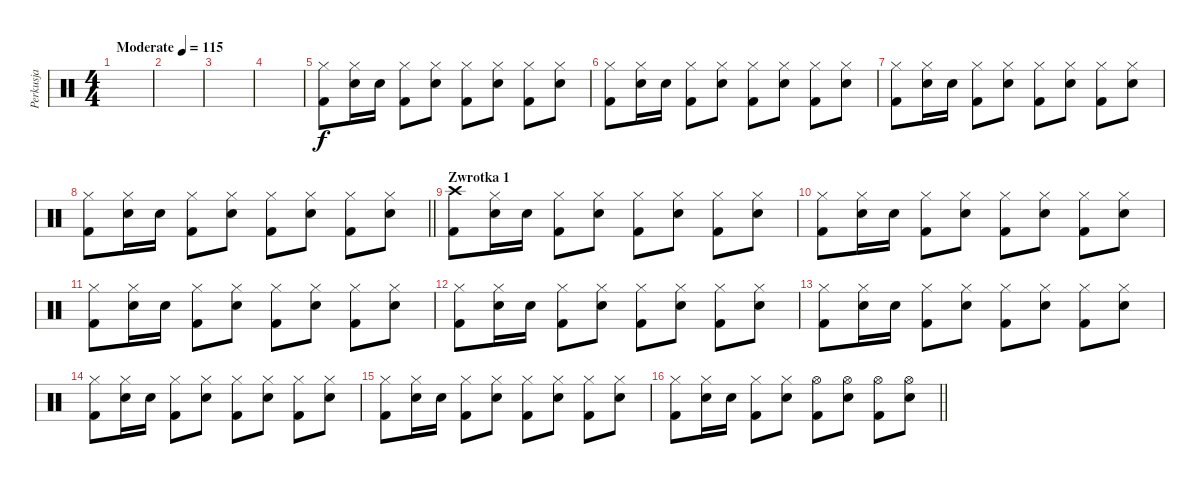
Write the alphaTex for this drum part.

\track ("Perkusja" "Perkusja") {instrument percussion}
\staff {score}
\articulation defaults
\ts (4 4)
\tempo (115 "Moderate")
\clef neutral
\ks c
|
|
|
|
("Hi-Hat (closed)" "Kick (hit) 2").8 ("Hi-Hat (closed)" "Snare (hit) 2").16 "Snare (hit) 2".16 ("Hi-Hat (closed)" "Kick (hit) 2").8 ("Hi-Hat (closed)" "Snare (hit) 2").8 ("Hi-Hat (closed)" "Kick (hit) 2").8 ("Hi-Hat (closed)" "Snare (hit) 2").8 ("Hi-Hat (closed)" "Kick (hit) 2").8 ("Hi-Hat (closed)" "Snare (hit) 2").8 |
("Hi-Hat (closed)" "Kick (hit) 2").8 ("Hi-Hat (closed)" "Snare (hit) 2").16 "Snare (hit) 2".16 ("Hi-Hat (closed)" "Kick (hit) 2").8 ("Hi-Hat (closed)" "Snare (hit) 2").8 ("Hi-Hat (closed)" "Kick (hit) 2").8 ("Hi-Hat (closed)" "Snare (hit) 2").8 ("Hi-Hat (closed)" "Kick (hit) 2").8 ("Hi-Hat (closed)" "Snare (hit) 2").8 |
("Hi-Hat (closed)" "Kick (hit) 2").8 ("Hi-Hat (closed)" "Snare (hit) 2").16 "Snare (hit) 2".16 ("Hi-Hat (closed)" "Kick (hit) 2").8 ("Hi-Hat (closed)" "Snare (hit) 2").8 ("Hi-Hat (closed)" "Kick (hit) 2").8 ("Hi-Hat (closed)" "Snare (hit) 2").8 ("Hi-Hat (closed)" "Kick (hit) 2").8 ("Hi-Hat (closed)" "Snare (hit) 2").8 |
\barLineRight lightlight
("Hi-Hat (closed)" "Kick (hit) 2").8 ("Hi-Hat (closed)" "Snare (hit) 2").16 "Snare (hit) 2".16 ("Hi-Hat (closed)" "Kick (hit) 2").8 ("Hi-Hat (closed)" "Snare (hit) 2").8 ("Hi-Hat (closed)" "Kick (hit) 2").8 ("Hi-Hat (closed)" "Snare (hit) 2").8 ("Hi-Hat (closed)" "Kick (hit) 2").8 ("Hi-Hat (closed)" "Snare (hit) 2").8 |
\section ("" "Zwrotka 1")
("Crash high (hit)" "Kick (hit) 2").8 ("Hi-Hat (closed)" "Snare (hit) 2").16 "Snare (hit) 2".16 ("Hi-Hat (closed)" "Kick (hit) 2").8 ("Hi-Hat (closed)" "Snare (hit) 2").8 ("Hi-Hat (closed)" "Kick (hit) 2").8 ("Hi-Hat (closed)" "Snare (hit) 2").8 ("Hi-Hat (closed)" "Kick (hit) 2").8 ("Hi-Hat (closed)" "Snare (hit) 2").8 |
("Hi-Hat (closed)" "Kick (hit) 2").8 ("Hi-Hat (closed)" "Snare (hit) 2").16 "Snare (hit) 2".16 ("Hi-Hat (closed)" "Kick (hit) 2").8 ("Hi-Hat (closed)" "Snare (hit) 2").8 ("Hi-Hat (closed)" "Kick (hit) 2").8 ("Hi-Hat (closed)" "Snare (hit) 2").8 ("Hi-Hat (closed)" "Kick (hit) 2").8 ("Hi-Hat (closed)" "Snare (hit) 2").8 |
("Hi-Hat (closed)" "Kick (hit) 2").8 ("Hi-Hat (closed)" "Snare (hit) 2").16 "Snare (hit) 2".16 ("Hi-Hat (closed)" "Kick (hit) 2").8 ("Hi-Hat (closed)" "Snare (hit) 2").8 ("Hi-Hat (closed)" "Kick (hit) 2").8 ("Hi-Hat (closed)" "Snare (hit) 2").8 ("Hi-Hat (closed)" "Kick (hit) 2").8 ("Hi-Hat (closed)" "Snare (hit) 2").8 |
("Hi-Hat (closed)" "Kick (hit) 2").8 ("Hi-Hat (closed)" "Snare (hit) 2").16 "Snare (hit) 2".16 ("Hi-Hat (closed)" "Kick (hit) 2").8 ("Hi-Hat (closed)" "Snare (hit) 2").8 ("Hi-Hat (closed)" "Kick (hit) 2").8 ("Hi-Hat (closed)" "Snare (hit) 2").8 ("Hi-Hat (closed)" "Kick (hit) 2").8 ("Hi-Hat (closed)" "Snare (hit) 2").8 |
("Hi-Hat (closed)" "Kick (hit) 2").8 ("Hi-Hat (closed)" "Snare (hit) 2").16 "Snare (hit) 2".16 ("Hi-Hat (closed)" "Kick (hit) 2").8 ("Hi-Hat (closed)" "Snare (hit) 2").8 ("Hi-Hat (closed)" "Kick (hit) 2").8 ("Hi-Hat (closed)" "Snare (hit) 2").8 ("Hi-Hat (closed)" "Kick (hit) 2").8 ("Hi-Hat (closed)" "Snare (hit) 2").8 |
("Hi-Hat (closed)" "Kick (hit) 2").8 ("Hi-Hat (closed)" "Snare (hit) 2").16 "Snare (hit) 2".16 ("Hi-Hat (closed)" "Kick (hit) 2").8 ("Hi-Hat (closed)" "Snare (hit) 2").8 ("Hi-Hat (closed)" "Kick (hit) 2").8 ("Hi-Hat (closed)" "Snare (hit) 2").8 ("Hi-Hat (closed)" "Kick (hit) 2").8 ("Hi-Hat (closed)" "Snare (hit) 2").8 |
("Hi-Hat (closed)" "Kick (hit) 2").8 ("Hi-Hat (closed)" "Snare (hit) 2").16 "Snare (hit) 2".16 ("Hi-Hat (closed)" "Kick (hit) 2").8 ("Hi-Hat (closed)" "Snare (hit) 2").8 ("Hi-Hat (closed)" "Kick (hit) 2").8 ("Hi-Hat (closed)" "Snare (hit) 2").8 ("Hi-Hat (closed)" "Kick (hit) 2").8 ("Hi-Hat (closed)" "Snare (hit) 2").8 |
\barLineRight lightlight
("Hi-Hat (closed)" "Kick (hit) 2").8 ("Hi-Hat (closed)" "Snare (hit) 2").16 "Snare (hit) 2".16 ("Hi-Hat (closed)" "Kick (hit) 2").8 ("Hi-Hat (closed)" "Snare (hit) 2").8 ("Hi-Hat (open)" "Kick (hit) 2").8 ("Hi-Hat (open)" "Snare (hit) 2").8 ("Hi-Hat (open)" "Kick (hit) 2").8 ("Hi-Hat (open)" "Snare (hit) 2").8
